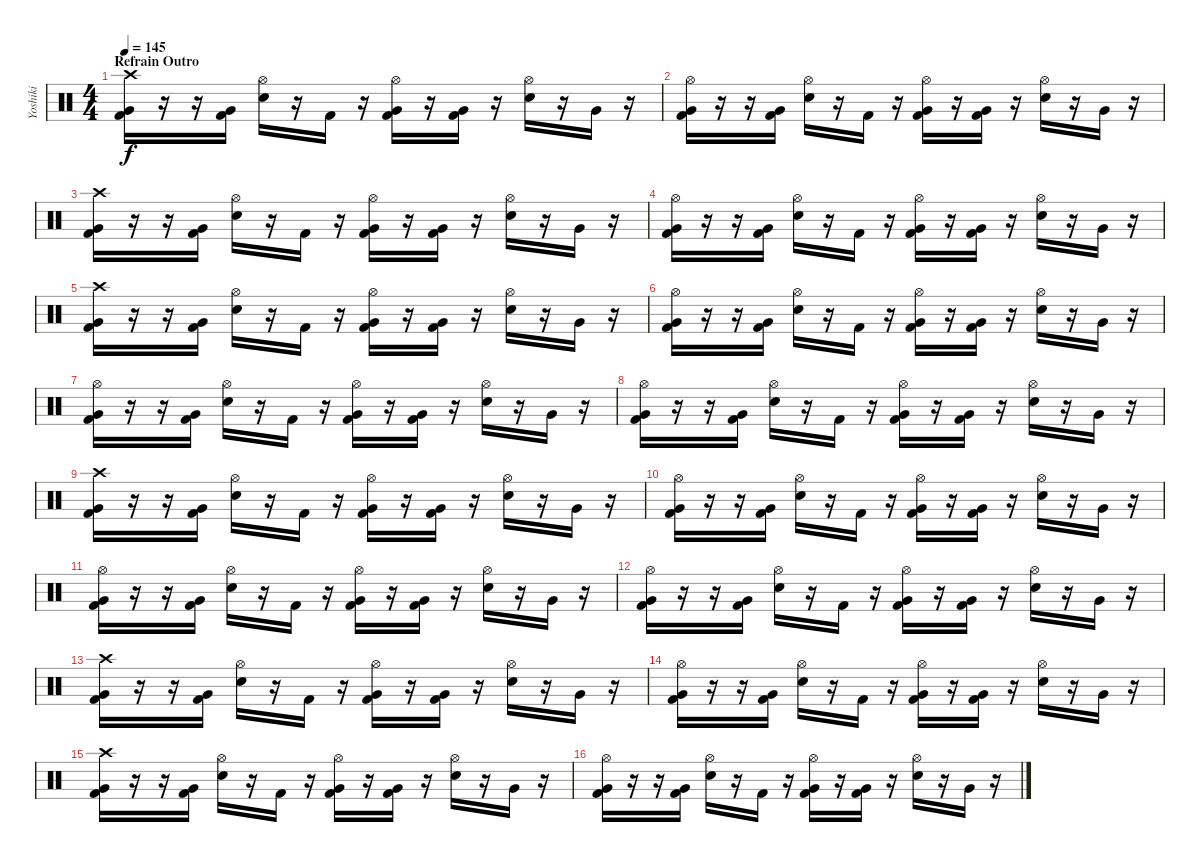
\track ("Yoshiki" "Yoshiki") {instrument percussion}
\staff {score}
\articulation defaults
\ts (4 4)
\section ("" "Refrain Outro")
\tempo 145
\clef neutral
\ks c
("Crash high (hit)" "Very Low Tom (hit)" "Kick (hit) 2").16{dy f} r.16 r.16 ("Very Low Tom (hit)" "Kick (hit) 2").16 ("Hi-Hat (open)" "Snare (hit) 2").16 r.16 "Kick (hit) 2".16 r.16 ("Hi-Hat (open)" "Very Low Tom (hit)" "Kick (hit) 2").16 r.16 ("Very Low Tom (hit)" "Kick (hit) 2").16 r.16 ("Hi-Hat (open)" "Snare (hit) 2").16 r.16 "Very Low Tom (hit)".16 r.16 |
("Hi-Hat (open)" "Very Low Tom (hit)" "Kick (hit) 2").16 r.16 r.16 ("Very Low Tom (hit)" "Kick (hit) 2").16 ("Hi-Hat (open)" "Snare (hit) 2").16 r.16 "Kick (hit) 2".16 r.16 ("Hi-Hat (open)" "Very Low Tom (hit)" "Kick (hit) 2").16 r.16 ("Very Low Tom (hit)" "Kick (hit) 2").16 r.16 ("Hi-Hat (open)" "Snare (hit) 2").16 r.16 "Very Low Tom (hit)".16 r.16 |
("Crash high (hit)" "Very Low Tom (hit)" "Kick (hit) 2").16 r.16 r.16 ("Very Low Tom (hit)" "Kick (hit) 2").16 ("Hi-Hat (open)" "Snare (hit) 2").16 r.16 "Kick (hit) 2".16 r.16 ("Hi-Hat (open)" "Very Low Tom (hit)" "Kick (hit) 2").16 r.16 ("Very Low Tom (hit)" "Kick (hit) 2").16 r.16 ("Hi-Hat (open)" "Snare (hit) 2").16 r.16 "Very Low Tom (hit)".16 r.16 |
("Hi-Hat (open)" "Very Low Tom (hit)" "Kick (hit) 2").16 r.16 r.16 ("Very Low Tom (hit)" "Kick (hit) 2").16 ("Hi-Hat (open)" "Snare (hit) 2").16 r.16 "Kick (hit) 2".16 r.16 ("Hi-Hat (open)" "Very Low Tom (hit)" "Kick (hit) 2").16 r.16 ("Very Low Tom (hit)" "Kick (hit) 2").16 r.16 ("Hi-Hat (open)" "Snare (hit) 2").16 r.16 "Very Low Tom (hit)".16 r.16 |
("Crash high (hit)" "Very Low Tom (hit)" "Kick (hit) 2").16 r.16 r.16 ("Very Low Tom (hit)" "Kick (hit) 2").16 ("Hi-Hat (open)" "Snare (hit) 2").16 r.16 "Kick (hit) 2".16 r.16 ("Hi-Hat (open)" "Very Low Tom (hit)" "Kick (hit) 2").16 r.16 ("Very Low Tom (hit)" "Kick (hit) 2").16 r.16 ("Hi-Hat (open)" "Snare (hit) 2").16 r.16 "Very Low Tom (hit)".16 r.16 |
("Hi-Hat (open)" "Very Low Tom (hit)" "Kick (hit) 2").16 r.16 r.16 ("Very Low Tom (hit)" "Kick (hit) 2").16 ("Hi-Hat (open)" "Snare (hit) 2").16 r.16 "Kick (hit) 2".16 r.16 ("Hi-Hat (open)" "Very Low Tom (hit)" "Kick (hit) 2").16 r.16 ("Very Low Tom (hit)" "Kick (hit) 2").16 r.16 ("Hi-Hat (open)" "Snare (hit) 2").16 r.16 "Very Low Tom (hit)".16 r.16 |
("Hi-Hat (open)" "Very Low Tom (hit)" "Kick (hit) 2").16 r.16 r.16 ("Very Low Tom (hit)" "Kick (hit) 2").16 ("Hi-Hat (open)" "Snare (hit) 2").16 r.16 "Kick (hit) 2".16 r.16 ("Hi-Hat (open)" "Very Low Tom (hit)" "Kick (hit) 2").16 r.16 ("Very Low Tom (hit)" "Kick (hit) 2").16 r.16 ("Hi-Hat (open)" "Snare (hit) 2").16 r.16 "Very Low Tom (hit)".16 r.16 |
("Hi-Hat (open)" "Very Low Tom (hit)" "Kick (hit) 2").16 r.16 r.16 ("Very Low Tom (hit)" "Kick (hit) 2").16 ("Hi-Hat (open)" "Snare (hit) 2").16 r.16 "Kick (hit) 2".16 r.16 ("Hi-Hat (open)" "Very Low Tom (hit)" "Kick (hit) 2").16 r.16 ("Very Low Tom (hit)" "Kick (hit) 2").16 r.16 ("Hi-Hat (open)" "Snare (hit) 2").16 r.16 "Very Low Tom (hit)".16 r.16 |
("Crash high (hit)" "Very Low Tom (hit)" "Kick (hit) 2").16 r.16 r.16 ("Very Low Tom (hit)" "Kick (hit) 2").16 ("Hi-Hat (open)" "Snare (hit) 2").16 r.16 "Kick (hit) 2".16 r.16 ("Hi-Hat (open)" "Very Low Tom (hit)" "Kick (hit) 2").16 r.16 ("Very Low Tom (hit)" "Kick (hit) 2").16 r.16 ("Hi-Hat (open)" "Snare (hit) 2").16 r.16 "Very Low Tom (hit)".16 r.16 |
("Hi-Hat (open)" "Very Low Tom (hit)" "Kick (hit) 2").16 r.16 r.16 ("Very Low Tom (hit)" "Kick (hit) 2").16 ("Hi-Hat (open)" "Snare (hit) 2").16 r.16 "Kick (hit) 2".16 r.16 ("Hi-Hat (open)" "Very Low Tom (hit)" "Kick (hit) 2").16 r.16 ("Very Low Tom (hit)" "Kick (hit) 2").16 r.16 ("Hi-Hat (open)" "Snare (hit) 2").16 r.16 "Very Low Tom (hit)".16 r.16 |
("Hi-Hat (open)" "Very Low Tom (hit)" "Kick (hit) 2").16 r.16 r.16 ("Very Low Tom (hit)" "Kick (hit) 2").16 ("Hi-Hat (open)" "Snare (hit) 2").16 r.16 "Kick (hit) 2".16 r.16 ("Hi-Hat (open)" "Very Low Tom (hit)" "Kick (hit) 2").16 r.16 ("Very Low Tom (hit)" "Kick (hit) 2").16 r.16 ("Hi-Hat (open)" "Snare (hit) 2").16 r.16 "Very Low Tom (hit)".16 r.16 |
("Hi-Hat (open)" "Very Low Tom (hit)" "Kick (hit) 2").16 r.16 r.16 ("Very Low Tom (hit)" "Kick (hit) 2").16 ("Hi-Hat (open)" "Snare (hit) 2").16 r.16 "Kick (hit) 2".16 r.16 ("Hi-Hat (open)" "Very Low Tom (hit)" "Kick (hit) 2").16 r.16 ("Very Low Tom (hit)" "Kick (hit) 2").16 r.16 ("Hi-Hat (open)" "Snare (hit) 2").16 r.16 "Very Low Tom (hit)".16 r.16 |
("Crash high (hit)" "Very Low Tom (hit)" "Kick (hit) 2").16 r.16 r.16 ("Very Low Tom (hit)" "Kick (hit) 2").16 ("Hi-Hat (open)" "Snare (hit) 2").16 r.16 "Kick (hit) 2".16 r.16 ("Hi-Hat (open)" "Very Low Tom (hit)" "Kick (hit) 2").16 r.16 ("Very Low Tom (hit)" "Kick (hit) 2").16 r.16 ("Hi-Hat (open)" "Snare (hit) 2").16 r.16 "Very Low Tom (hit)".16 r.16 |
("Hi-Hat (open)" "Very Low Tom (hit)" "Kick (hit) 2").16 r.16 r.16 ("Very Low Tom (hit)" "Kick (hit) 2").16 ("Hi-Hat (open)" "Snare (hit) 2").16 r.16 "Kick (hit) 2".16 r.16 ("Hi-Hat (open)" "Very Low Tom (hit)" "Kick (hit) 2").16 r.16 ("Very Low Tom (hit)" "Kick (hit) 2").16 r.16 ("Hi-Hat (open)" "Snare (hit) 2").16 r.16 "Very Low Tom (hit)".16 r.16 |
("Crash high (hit)" "Very Low Tom (hit)" "Kick (hit) 2").16 r.16 r.16 ("Very Low Tom (hit)" "Kick (hit) 2").16 ("Hi-Hat (open)" "Snare (hit) 2").16 r.16 "Kick (hit) 2".16 r.16 ("Hi-Hat (open)" "Very Low Tom (hit)" "Kick (hit) 2").16 r.16 ("Very Low Tom (hit)" "Kick (hit) 2").16 r.16 ("Hi-Hat (open)" "Snare (hit) 2").16 r.16 "Very Low Tom (hit)".16 r.16 |
("Hi-Hat (open)" "Very Low Tom (hit)" "Kick (hit) 2").16 r.16 r.16 ("Very Low Tom (hit)" "Kick (hit) 2").16 ("Hi-Hat (open)" "Snare (hit) 2").16 r.16 "Kick (hit) 2".16 r.16 ("Hi-Hat (open)" "Very Low Tom (hit)" "Kick (hit) 2").16 r.16 ("Very Low Tom (hit)" "Kick (hit) 2").16 r.16 ("Hi-Hat (open)" "Snare (hit) 2").16 r.16 "Very Low Tom (hit)".16 r.16
